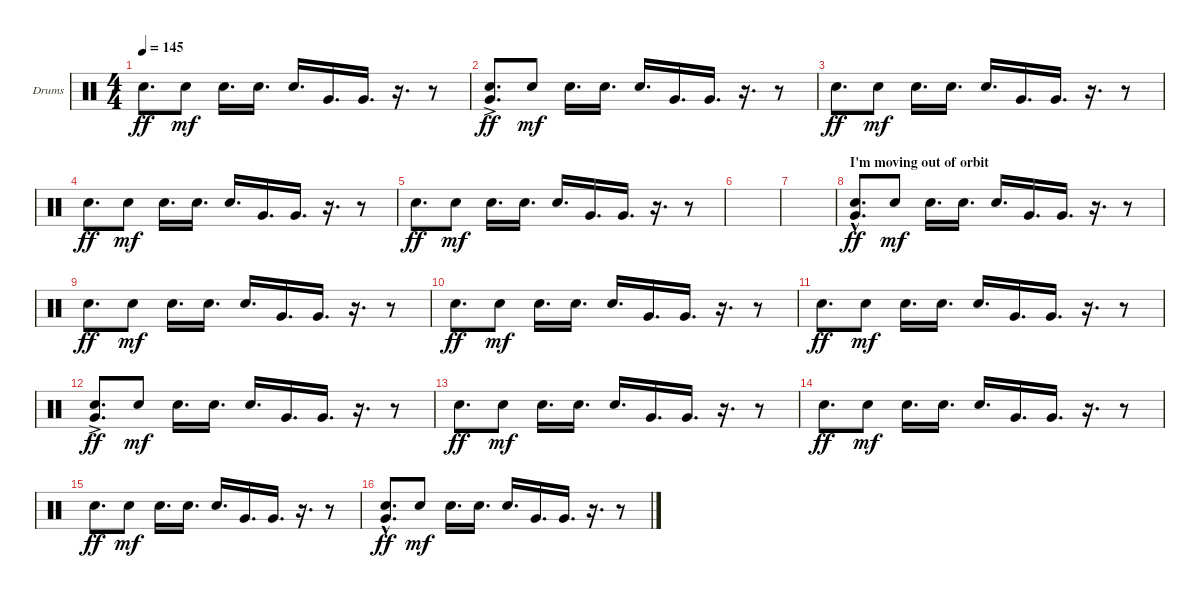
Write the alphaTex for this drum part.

\defaultSystemsLayout 4
\bracketExtendMode groupsimilarinstruments
\firstSystemTrackNameOrientation horizontal
\otherSystemsTrackNameOrientation horizontal
\track ("Drumkit" "Drums") {instrument percussion}
\staff {score}
\articulation defaults
\ts (4 4)
\tempo 145
\clef neutral
\ks c "Snare (hit) 2".8{d dy ff} "Snare (hit) 2".8{dy mf} "Snare (hit) 2".16{d} "Snare (hit) 2".16{d} "Snare (hit) 2".16{d} "Very Low Tom (hit)".16{d} "Very Low Tom (hit)".16{d}
r.16{d} r.8 |
("Snare (hit) 2" "Very Low Tom (hit)"{ac}).8{d dy ff} "Snare (hit) 2".8{dy mf} "Snare (hit) 2".16{d} "Snare (hit) 2".16{d} "Snare (hit) 2".16{d} "Very Low Tom (hit)".16{d} "Very Low Tom (hit)".16{d} r.16{d} r.8 |
"Snare (hit) 2".8{d dy ff} "Snare (hit) 2".8{dy mf} "Snare (hit) 2".16{d} "Snare (hit) 2".16{d} "Snare (hit) 2".16{d} "Very Low Tom (hit)".16{d} "Very Low Tom (hit)".16{d} r.16{d} r.8 |
"Snare (hit) 2".8{d dy ff} "Snare (hit) 2".8{dy mf} "Snare (hit) 2".16{d} "Snare (hit) 2".16{d} "Snare (hit) 2".16{d} "Very Low Tom (hit)".16{d} "Very Low Tom (hit)".16{d} r.16{d} r.8 |
"Snare (hit) 2".8{d dy ff} "Snare (hit) 2".8{dy mf} "Snare (hit) 2".16{d} "Snare (hit) 2".16{d} "Snare (hit) 2".16{d} "Very Low Tom (hit)".16{d} "Very Low Tom (hit)".16{d} r.16{d} r.8 |
|
|
\section ("" "I'm moving out of orbit")
("Snare (hit) 2" "Very Low Tom (hit)"{hac}).8{d dy ff} "Snare (hit) 2".8{dy mf} "Snare (hit) 2".16{d} "Snare (hit) 2".16{d} "Snare (hit) 2".16{d} "Very Low Tom (hit)".16{d} "Very Low Tom (hit)".16{d} r.16{d} r.8 |
"Snare (hit) 2".8{d dy ff} "Snare (hit) 2".8{dy mf} "Snare (hit) 2".16{d} "Snare (hit) 2".16{d} "Snare (hit) 2".16{d} "Very Low Tom (hit)".16{d} "Very Low Tom (hit)".16{d} r.16{d} r.8 |
"Snare (hit) 2".8{d dy ff} "Snare (hit) 2".8{dy mf} "Snare (hit) 2".16{d} "Snare (hit) 2".16{d} "Snare (hit) 2".16{d} "Very Low Tom (hit)".16{d} "Very Low Tom (hit)".16{d} r.16{d} r.8 |
"Snare (hit) 2".8{d dy ff} "Snare (hit) 2".8{dy mf} "Snare (hit) 2".16{d} "Snare (hit) 2".16{d} "Snare (hit) 2".16{d} "Very Low Tom (hit)".16{d} "Very Low Tom (hit)".16{d} r.16{d} r.8 |
("Snare (hit) 2" "Very Low Tom (hit)"{ac}).8{d dy ff} "Snare (hit) 2".8{dy mf} "Snare (hit) 2".16{d} "Snare (hit) 2".16{d} "Snare (hit) 2".16{d} "Very Low Tom (hit)".16{d} "Very Low Tom (hit)".16{d} r.16{d} r.8 |
"Snare (hit) 2".8{d dy ff} "Snare (hit) 2".8{dy mf} "Snare (hit) 2".16{d} "Snare (hit) 2".16{d} "Snare (hit) 2".16{d} "Very Low Tom (hit)".16{d} "Very Low Tom (hit)".16{d} r.16{d} r.8 |
"Snare (hit) 2".8{d dy ff} "Snare (hit) 2".8{dy mf} "Snare (hit) 2".16{d} "Snare (hit) 2".16{d} "Snare (hit) 2".16{d} "Very Low Tom (hit)".16{d} "Very Low Tom (hit)".16{d} r.16{d} r.8 |
"Snare (hit) 2".8{d dy ff} "Snare (hit) 2".8{dy mf} "Snare (hit) 2".16{d} "Snare (hit) 2".16{d} "Snare (hit) 2".16{d} "Very Low Tom (hit)".16{d} "Very Low Tom (hit)".16{d} r.16{d} r.8 |
("Snare (hit) 2" "Very Low Tom (hit)"{hac}).8{d dy ff} "Snare (hit) 2".8{dy mf} "Snare (hit) 2".16{d} "Snare (hit) 2".16{d} "Snare (hit) 2".16{d} "Very Low Tom (hit)".16{d} "Very Low Tom (hit)".16{d} r.16{d} r.8
